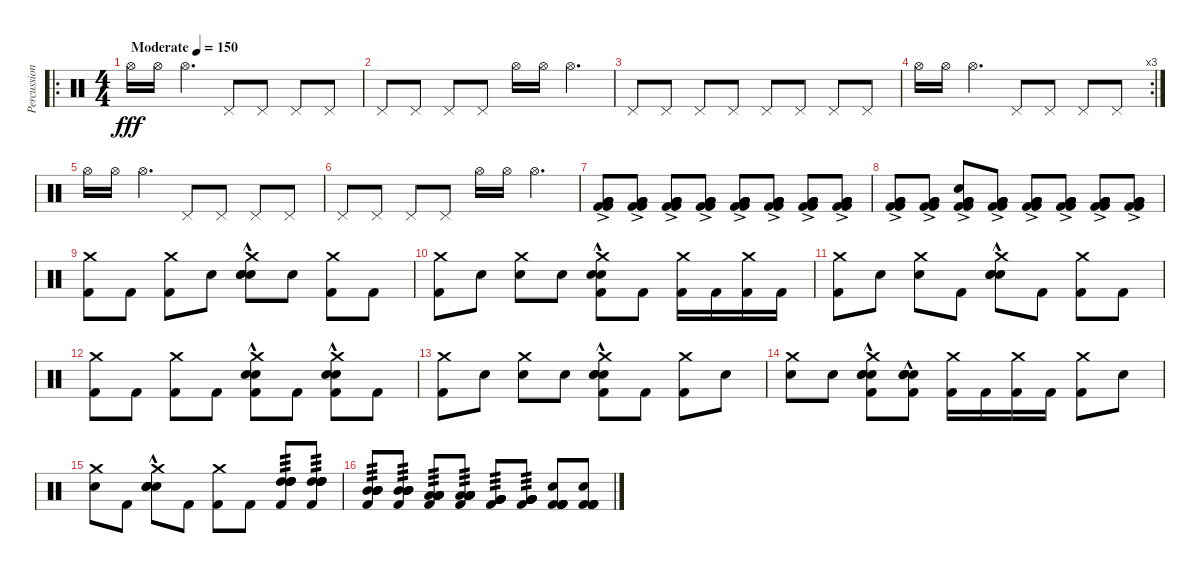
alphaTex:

\track ("Percussion" "Percussion") {instrument percussion}
\staff {score}
\articulation defaults
\ro
\ts (4 4)
\tempo (150 "Moderate")
\clef neutral
\ks c "Hi-Hat (open)".16{dy fff} "Hi-Hat (open)".16 "Hi-Hat (open)".4{d} "Pedal Hi-Hat (hit)".8 "Pedal Hi-Hat (hit)".8 "Pedal Hi-Hat (hit)".8 "Pedal Hi-Hat (hit)".8
|
"Pedal Hi-Hat (hit)".8 "Pedal Hi-Hat (hit)".8 "Pedal Hi-Hat (hit)".8 "Pedal Hi-Hat (hit)".8 "Hi-Hat (open)".16 "Hi-Hat (open)".16 "Hi-Hat (open)".4{d} |
"Pedal Hi-Hat (hit)".8 "Pedal Hi-Hat (hit)".8 "Pedal Hi-Hat (hit)".8 "Pedal Hi-Hat (hit)".8 "Pedal Hi-Hat (hit)".8 "Pedal Hi-Hat (hit)".8 "Pedal Hi-Hat (hit)".8 "Pedal Hi-Hat (hit)".8 |
\rc 3 "Hi-Hat (open)".16 "Hi-Hat (open)".16 "Hi-Hat (open)".4{d} "Pedal Hi-Hat (hit)".8 "Pedal Hi-Hat (hit)".8 "Pedal Hi-Hat (hit)".8 "Pedal Hi-Hat (hit)".8
|
"Hi-Hat (open)".16 "Hi-Hat (open)".16 "Hi-Hat (open)".4{d} "Pedal Hi-Hat (hit)".8 "Pedal Hi-Hat (hit)".8 "Pedal Hi-Hat (hit)".8 "Pedal Hi-Hat (hit)".8 |
"Pedal Hi-Hat (hit)".8 "Pedal Hi-Hat (hit)".8 "Pedal Hi-Hat (hit)".8 "Pedal Hi-Hat (hit)".8 "Hi-Hat (open)".16 "Hi-Hat (open)".16 "Hi-Hat (open)".4{d} |
("Very Low Tom (hit)"{ac} "Very Low Tom (hit)"{ac} "Very Low Tom (hit)"{ac} "Very Low Tom (hit)"{ac} "Kick (hit) 2"{ac} "Kick (hit) 2"{ac}).8 ("Very Low Tom (hit)"{ac} "Very Low Tom (hit)"{ac} "Very Low Tom (hit)"{ac} "Very Low Tom (hit)"{ac} "Kick (hit) 2"{ac} "Kick (hit) 2"{ac}).8 ("Very Low Tom (hit)"{ac} "Very Low Tom (hit)"{ac} "Very Low Tom (hit)"{ac} "Very Low Tom (hit)"{ac} "Kick (hit) 2"{ac} "Kick (hit) 2"{ac}).8 ("Very Low Tom (hit)"{ac} "Very Low Tom (hit)"{ac} "Very Low Tom (hit)"{ac} "Very Low Tom (hit)"{ac} "Kick (hit) 2"{ac} "Kick (hit) 2"{ac}).8 ("Very Low Tom (hit)"{ac} "Very Low Tom (hit)"{ac} "Very Low Tom (hit)"{ac} "Very Low Tom (hit)"{ac} "Kick (hit) 2"{ac} "Kick (hit) 2"{ac}).8 ("Very Low Tom (hit)"{ac} "Very Low Tom (hit)"{ac} "Very Low Tom (hit)"{ac} "Very Low Tom (hit)"{ac} "Kick (hit) 2"{ac} "Kick (hit) 2"{ac}).8 ("Very Low Tom (hit)"{ac} "Very Low Tom (hit)"{ac} "Very Low Tom (hit)"{ac} "Very Low Tom (hit)"{ac} "Kick (hit) 2"{ac} "Kick (hit) 2"{ac}).8 ("Very Low Tom (hit)"{ac} "Very Low Tom (hit)"{ac} "Very Low Tom (hit)"{ac} "Very Low Tom (hit)"{ac} "Kick (hit) 2"{ac} "Kick (hit) 2"{ac}).8 |
("Very Low Tom (hit)"{ac} "Very Low Tom (hit)"{ac} "Very Low Tom (hit)"{ac} "Very Low Tom (hit)"{ac} "Kick (hit) 2"{ac} "Kick (hit) 2"{ac}).8 ("Very Low Tom (hit)"{ac} "Very Low Tom (hit)"{ac} "Very Low Tom (hit)"{ac} "Very Low Tom (hit)"{ac} "Kick (hit) 2"{ac} "Kick (hit) 2"{ac}).8 ("Very Low Tom (hit)"{ac} "Very Low Tom (hit)"{ac} "Very Low Tom (hit)"{ac} "Snare (hit)"{ac} "Kick (hit) 2"{ac} "Kick (hit) 2"{ac}).8 ("Very Low Tom (hit)"{ac} "Very Low Tom (hit)"{ac} "Very Low Tom (hit)"{ac} "Very Low Tom (hit)"{ac} "Kick (hit) 2"{ac} "Kick (hit) 2"{ac}).8 ("Very Low Tom (hit)"{ac} "Very Low Tom (hit)"{ac} "Very Low Tom (hit)"{ac} "Very Low Tom (hit)"{ac} "Kick (hit) 2"{ac} "Kick (hit) 2"{ac}).8 ("Very Low Tom (hit)"{ac} "Very Low Tom (hit)"{ac} "Very Low Tom (hit)"{ac} "Very Low Tom (hit)"{ac} "Kick (hit) 2"{ac} "Kick (hit) 2"{ac}).8 ("Very Low Tom (hit)"{ac} "Very Low Tom (hit)"{ac} "Very Low Tom (hit)"{ac} "Very Low Tom (hit)"{ac} "Kick (hit) 2"{ac} "Kick (hit) 2"{ac}).8 ("Very Low Tom (hit)"{ac} "Very Low Tom (hit)"{ac} "Very Low Tom (hit)"{ac} "Very Low Tom (hit)"{ac} "Kick (hit) 2"{ac} "Kick (hit) 2"{ac}).8 |
("Crash medium (hit)" "Kick (hit) 2").8 "Kick (hit) 2".8 ("Crash medium (hit)" "Kick (hit) 2").8 "Snare (hit)".8 ("Crash medium (hit)"{hac} "Snare (hit) 2"{hac} "Snare (hit) 2"{hac} "Snare (hit) 2"{hac}).8 "Snare (hit)".8 ("Crash medium (hit)" "Kick (hit) 2").8 "Kick (hit) 2".8 |
("Crash medium (hit)" "Kick (hit) 2").8 "Snare (hit)".8 ("Crash medium (hit)" "Snare (hit)").8 "Snare (hit)".8 ("Crash medium (hit)"{hac} "Snare (hit) 2"{hac} "Snare (hit) 2"{hac} "Kick (hit) 2"{hac}).8 "Kick (hit) 2".8 ("Crash medium (hit)" "Kick (hit) 2").16 "Kick (hit) 2".16 ("Crash medium (hit)" "Kick (hit) 2").16 "Kick (hit) 2".16 |
("Crash medium (hit)" "Kick (hit) 2").8 "Snare (hit)".8 ("Crash medium (hit)" "Snare (hit)").8 "Kick (hit) 2".8 ("Crash medium (hit)"{hac} "Snare (hit) 2"{hac} "Snare (hit) 2"{hac} "Snare (hit) 2"{hac}).8 "Kick (hit) 2".8 ("Crash medium (hit)" "Kick (hit) 2").8 "Kick (hit) 2".8 |
("Crash medium (hit)" "Kick (hit) 2").8 "Kick (hit) 2".8 ("Crash medium (hit)" "Kick (hit) 2").8 "Kick (hit) 2".8 ("Crash medium (hit)"{hac} "Snare (hit) 2"{hac} "Snare (hit) 2"{hac} "Kick (hit) 2"{hac}).8 "Kick (hit) 2".8 ("Crash medium (hit)"{hac} "Snare (hit) 2"{hac} "Snare (hit) 2"{hac} "Kick (hit) 2"{hac}).8 "Kick (hit) 2".8 |
("Crash medium (hit)" "Kick (hit) 2").8 "Snare (hit)".8 ("Crash medium (hit)" "Snare (hit)").8 "Snare (hit)".8 ("Snare (hit) 2"{hac} "Snare (hit) 2"{hac} "Crash medium (hit)"{hac} "Snare (hit) 2"{hac} "Kick (hit) 2"{hac}).8 "Kick (hit) 2".8 ("Crash medium (hit)" "Kick (hit) 2").8 "Snare (hit)".8 |
("Crash medium (hit)" "Snare (hit)").8 "Snare (hit)".8 ("Snare (hit) 2"{hac} "Snare (hit) 2"{hac} "Crash medium (hit)"{hac} "Snare (hit) 2"{hac} "Kick (hit) 2"{hac}).8 ("Snare (hit) 2"{hac} "Snare (hit) 2"{hac} "Snare (hit) 2"{hac} "Snare (hit) 2"{hac} "Kick (hit) 2"{hac}).8 ("Crash medium (hit)" "Kick (hit) 2").16 "Kick (hit) 2".16 ("Crash medium (hit)" "Kick (hit) 2").16 "Kick (hit) 2".16 ("Crash medium (hit)" "Kick (hit) 2").8 "Snare (hit)".8 |
("Crash medium (hit)" "Snare (hit)").8 "Kick (hit) 2".8 ("Snare (hit) 2"{hac} "Snare (hit) 2"{hac} "Crash medium (hit)"{hac} "Snare (hit) 2"{hac} "Snare (hit) 2"{hac}).8 "Kick (hit) 2".8 ("Crash medium (hit)" "Kick (hit) 2").8 "Kick (hit) 2".8 ("High Tom (hit)" "High Tom (hit)" "High Tom (hit)" "High Tom (hit)" "High Tom (hit)" "Kick (hit) 2").8{tp 3} ("High Tom (hit)" "High Tom (hit)" "High Tom (hit)" "High Tom (hit)" "High Tom (hit)" "Kick (hit) 2").8{tp 3} |
("Mid Tom (hit)" "Mid Tom (hit)" "Mid Tom (hit)" "Mid Tom (hit)" "Mid Tom (hit)" "Kick (hit) 2").8{tp 3} ("Mid Tom (hit)" "Mid Tom (hit)" "Mid Tom (hit)" "Mid Tom (hit)" "Mid Tom (hit)" "Kick (hit) 2").8{tp 3} ("Low Tom (hit)" "Low Tom (hit)" "Low Tom (hit)" "Low Tom (hit)" "Low Tom (hit)" "Kick (hit) 2").8{tp 3} ("Low Tom (hit)" "Low Tom (hit)" "Low Tom (hit)" "Low Tom (hit)" "Low Tom (hit)" "Kick (hit) 2").8{tp 3} ("Very Low Tom (hit)" "Very Low Tom (hit)" "Very Low Tom (hit)" "Very Low Tom (hit)" "Very Low Tom (hit)" "Kick (hit) 2").8{tp 3} ("Very Low Tom (hit)" "Very Low Tom (hit)" "Very Low Tom (hit)" "Very Low Tom (hit)" "Very Low Tom (hit)" "Kick (hit) 2").8{tp 3} ("Snare (hit) 2" "Kick (hit) 2" "Kick (hit) 2" "Kick (hit) 2" "Kick (hit) 2" "Kick (hit) 2").8 ("Snare (hit) 2" "Kick (hit) 2" "Kick (hit) 2" "Kick (hit) 2" "Kick (hit) 2" "Kick (hit) 2").8
